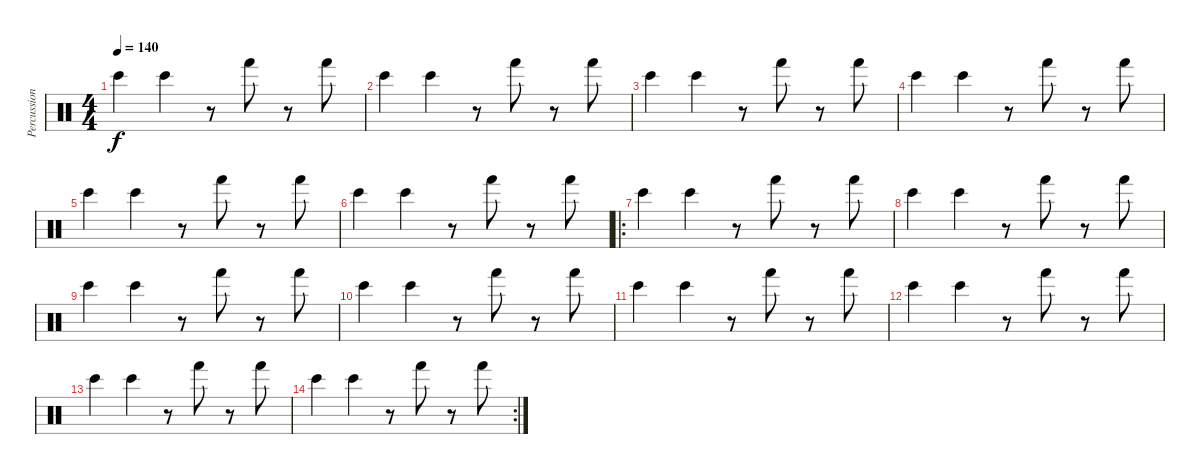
\track ("Percussions" "Percussion") {instrument percussion}
\staff {score}
\articulation defaults
\ts (4 4)
\tempo 140
\clef neutral
\ks c "Bongo High (hit)".4{dy f} "Bongo High (hit)".4
r.8 "Hand (hit)".8 r.8 "Hand (hit)".8 |
"Bongo High (hit)".4 "Bongo High (hit)".4 r.8 "Hand (hit)".8 r.8 "Hand (hit)".8 |
"Bongo High (hit)".4 "Bongo High (hit)".4 r.8 "Hand (hit)".8 r.8 "Hand (hit)".8 |
"Bongo High (hit)".4 "Bongo High (hit)".4 r.8 "Hand (hit)".8 r.8 "Hand (hit)".8 |
"Bongo High (hit)".4 "Bongo High (hit)".4 r.8 "Hand (hit)".8 r.8 "Hand (hit)".8 |
"Bongo High (hit)".4 "Bongo High (hit)".4 r.8 "Hand (hit)".8 r.8 "Hand (hit)".8 |
\ro "Bongo High (hit)".4 "Bongo High (hit)".4
r.8 "Hand (hit)".8 r.8 "Hand (hit)".8 |
"Bongo High (hit)".4 "Bongo High (hit)".4 r.8 "Hand (hit)".8 r.8 "Hand (hit)".8 |
"Bongo High (hit)".4 "Bongo High (hit)".4 r.8 "Hand (hit)".8 r.8 "Hand (hit)".8 |
"Bongo High (hit)".4 "Bongo High (hit)".4 r.8 "Hand (hit)".8 r.8 "Hand (hit)".8 |
"Bongo High (hit)".4 "Bongo High (hit)".4 r.8 "Hand (hit)".8 r.8 "Hand (hit)".8 |
"Bongo High (hit)".4 "Bongo High (hit)".4 r.8 "Hand (hit)".8 r.8 "Hand (hit)".8 |
"Bongo High (hit)".4 "Bongo High (hit)".4 r.8 "Hand (hit)".8 r.8 "Hand (hit)".8 |
\rc 2 "Bongo High (hit)".4 "Bongo High (hit)".4
r.8 "Hand (hit)".8 r.8 "Hand (hit)".8
